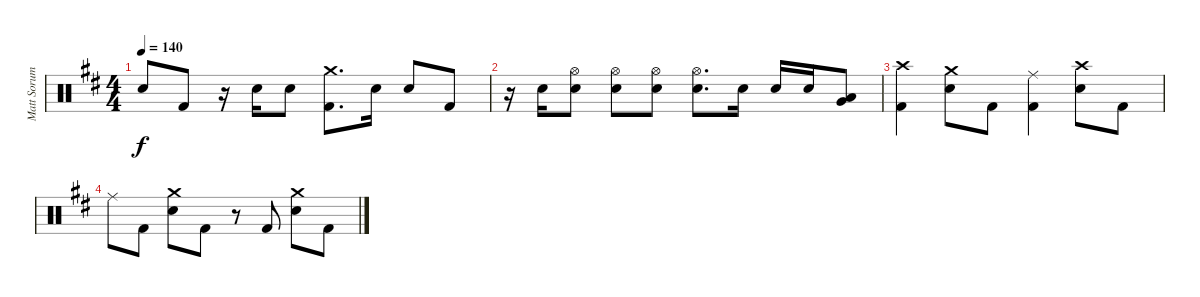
\track ("Matt Sorum - Drums" "Matt Sorum") {instrument percussion}
\staff {score}
\articulation defaults
\ts (4 4)
\tempo 140
\clef neutral
\ks d "Snare (hit) 2".8{dy f} "Kick (hit) 2".8
r.16 "Snare (hit) 2".16 "Snare (hit) 2".8 ("Crash medium (hit)" "Kick (hit) 2").8{d} "Snare (hit) 2".16 "Snare (hit) 2".8 "Kick (hit) 2".8 |
r.16 "Snare (hit) 2".16 ("Hi-Hat (open)" "Snare (hit) 2").8 ("Hi-Hat (open)" "Snare (hit) 2").8 ("Hi-Hat (open)" "Snare (hit) 2").8 ("Hi-Hat (open)" "Snare (hit) 2").8{d} "Snare (hit) 2".16 "Snare (hit) 2".16 "Snare (hit) 2".16 ("Very Low Tom (hit)" "Low Tom (hit)").8 |
("Crash high (hit)" "Kick (hit) 2").4 ("Crash medium (hit)" "Snare (hit) 2").8 "Kick (hit) 2".8 ("Ride (middle)" "Kick (hit) 2").4 ("Crash high (hit)" "Snare (hit) 2").8 "Kick (hit) 2".8 |
"Ride (middle)".8 "Kick (hit) 2".8 ("Crash medium (hit)" "Snare (hit) 2").8 "Kick (hit) 2".8 r.8 "Kick (hit) 2".8 ("Crash medium (hit)" "Snare (hit) 2").8 "Kick (hit) 2".8
